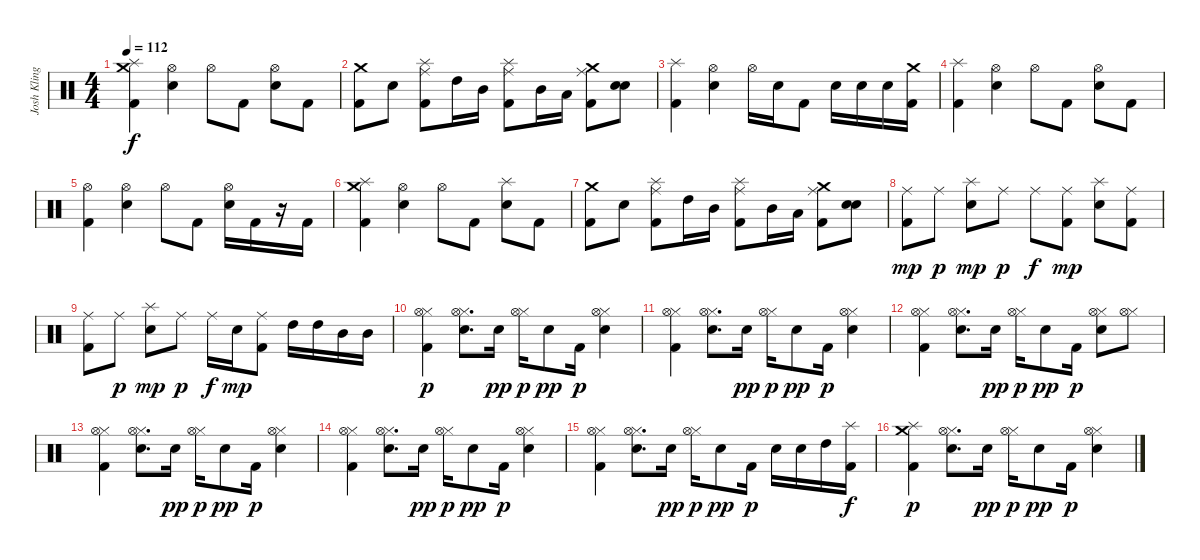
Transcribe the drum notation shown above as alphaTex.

\track ("Josh Klinghoffer " "Josh Kling") {instrument percussion}
\staff {score}
\articulation defaults
\ts (4 4)
\tempo 112
\clef neutral
\ks c
("Splash (hit)" "Crash medium (hit)" "Kick (hit) 2").4{dy f} ("Hi-Hat (open)" "Electric Snare (hit)").4 "Hi-Hat (open)".8 "Kick (hit) 2".8 ("Hi-Hat (open)" "Electric Snare (hit)").8 "Kick (hit) 2".8 |
("Crash medium (hit)" "Kick (hit) 2").8 "Electric Snare (hit)".8 ("Ride (middle)" "Splash (hit)" "Kick (hit) 2").8 "High Tom (hit)".16 "Mid Tom (hit)".16 ("Ride (middle)" "Splash (hit)" "Kick (hit) 2").8 "Mid Tom (hit)".16 "Low Tom (hit)".16 ("Ride (middle)" "Crash medium (hit)" "Kick (hit) 2").8 ("Electric Snare (hit)" "Electric Snare (hit)").8 |
("Splash (hit)" "Kick (hit) 2").4 ("Hi-Hat (open)" "Electric Snare (hit)").4 "Hi-Hat (open)".16 "Electric Snare (hit)".16 "Kick (hit) 2".8 "Electric Snare (hit)".16 "Electric Snare (hit)".16 "Electric Snare (hit)".16 ("Crash medium (hit)" "Kick (hit) 2").16 |
("Splash (hit)" "Kick (hit) 2").4 ("Hi-Hat (open)" "Electric Snare (hit)").4 "Hi-Hat (open)".8 "Kick (hit) 2".8 ("Hi-Hat (open)" "Electric Snare (hit)").8 "Kick (hit) 2".8 |
("Hi-Hat (open)" "Kick (hit) 2").4 ("Hi-Hat (open)" "Electric Snare (hit)").4 "Hi-Hat (open)".8 "Kick (hit) 2".8 ("Hi-Hat (open)" "Electric Snare (hit)").16 "Kick (hit) 2".16 r.16 "Kick (hit) 2".16 |
("Splash (hit)" "Crash medium (hit)" "Kick (hit) 2").4 ("Hi-Hat (open)" "Electric Snare (hit)").4 "Hi-Hat (open)".8 "Kick (hit) 2".8 ("Splash (hit)" "Electric Snare (hit)").8 "Kick (hit) 2".8 |
("Crash medium (hit)" "Kick (hit) 2").8 "Electric Snare (hit)".8 ("Ride (middle)" "Splash (hit)" "Kick (hit) 2").8 "High Tom (hit)".16 "Mid Tom (hit)".16 ("Ride (middle)" "Splash (hit)" "Kick (hit) 2").8 "Mid Tom (hit)".16 "Low Tom (hit)".16 ("Ride (middle)" "Crash medium (hit)" "Kick (hit) 2").8 ("Electric Snare (hit)" "Electric Snare (hit)").8 |
("Ride (middle)" "Kick (hit) 2").8{dy mp} "Ride (middle)".8{dy p} ("Splash (hit)" "Electric Snare (hit)").8{dy mp} "Ride (middle)".8{dy p} "Ride (middle)".8{dy f} ("Ride (middle)" "Kick (hit) 2").8{dy mp} ("Splash (hit)" "Electric Snare (hit)").8 ("Ride (middle)" "Kick (hit) 2").8 |
("Ride (middle)" "Kick (hit) 2").8 "Ride (middle)".8{dy p} ("Splash (hit)" "Electric Snare (hit)").8{dy mp} "Ride (middle)".8{dy p} "Ride (middle)".16{dy f} "Electric Snare (hit)".16{dy mp} ("Ride (middle)" "Kick (hit) 2").8 "High Tom (hit)".16 "High Tom (hit)".16 "Mid Tom (hit)".16 "Mid Tom (hit)".16 |
("Hi-Hat (closed)" "Hi-Hat (open)" "Kick (hit) 2").4{dy p volume 8} ("Hi-Hat (closed)" "Hi-Hat (open)" "Electric Snare (hit)").8{d} "Electric Snare (hit)".16{dy pp} ("Hi-Hat (closed)" "Hi-Hat (open)").16{dy p} "Electric Snare (hit)".8{dy pp} "Kick (hit) 2".16{dy p} ("Hi-Hat (closed)" "Hi-Hat (open)" "Electric Snare (hit)").4 |
("Hi-Hat (closed)" "Hi-Hat (open)" "Kick (hit) 2").4 ("Hi-Hat (closed)" "Hi-Hat (open)" "Electric Snare (hit)").8{d} "Electric Snare (hit)".16{dy pp} ("Hi-Hat (closed)" "Hi-Hat (open)").16{dy p} "Electric Snare (hit)".8{dy pp} "Kick (hit) 2".16{dy p} ("Hi-Hat (closed)" "Hi-Hat (open)" "Electric Snare (hit)").4 |
("Hi-Hat (closed)" "Hi-Hat (open)" "Kick (hit) 2").4 ("Hi-Hat (closed)" "Hi-Hat (open)" "Electric Snare (hit)").8{d} "Electric Snare (hit)".16{dy pp} ("Hi-Hat (closed)" "Hi-Hat (open)").16{dy p} "Electric Snare (hit)".8{dy pp} "Kick (hit) 2".16{dy p} ("Hi-Hat (closed)" "Hi-Hat (open)" "Electric Snare (hit)").8 ("Hi-Hat (closed)" "Hi-Hat (open)").8 |
("Hi-Hat (closed)" "Hi-Hat (open)" "Kick (hit) 2").4 ("Hi-Hat (closed)" "Hi-Hat (open)" "Electric Snare (hit)").8{d} "Electric Snare (hit)".16{dy pp} ("Hi-Hat (closed)" "Hi-Hat (open)").16{dy p} "Electric Snare (hit)".8{dy pp} "Kick (hit) 2".16{dy p} ("Hi-Hat (closed)" "Hi-Hat (open)" "Electric Snare (hit)").4 |
("Hi-Hat (closed)" "Hi-Hat (open)" "Kick (hit) 2").4 ("Hi-Hat (closed)" "Hi-Hat (open)" "Electric Snare (hit)").8{d} "Electric Snare (hit)".16{dy pp} ("Hi-Hat (closed)" "Hi-Hat (open)").16{dy p} "Electric Snare (hit)".8{dy pp} "Kick (hit) 2".16{dy p} ("Hi-Hat (closed)" "Hi-Hat (open)" "Electric Snare (hit)").4 |
("Hi-Hat (closed)" "Hi-Hat (open)" "Kick (hit) 2").4 ("Hi-Hat (closed)" "Hi-Hat (open)" "Electric Snare (hit)").8{d} "Electric Snare (hit)".16{dy pp} ("Hi-Hat (closed)" "Hi-Hat (open)").16{dy p} "Electric Snare (hit)".8{dy pp} "Kick (hit) 2".16{dy p} "Electric Snare (hit)".16 "Electric Snare (hit)".16 "High Tom (hit)".16 ("Splash (hit)" "Kick (hit) 2").16{dy f} |
("Splash (hit)" "Crash medium (hit)" "Kick (hit) 2").4{dy p} ("Hi-Hat (closed)" "Hi-Hat (open)" "Electric Snare (hit)").8{d} "Electric Snare (hit)".16{dy pp} ("Hi-Hat (closed)" "Hi-Hat (open)").16{dy p} "Electric Snare (hit)".8{dy pp} "Kick (hit) 2".16{dy p} ("Hi-Hat (closed)" "Hi-Hat (open)" "Electric Snare (hit)").4
